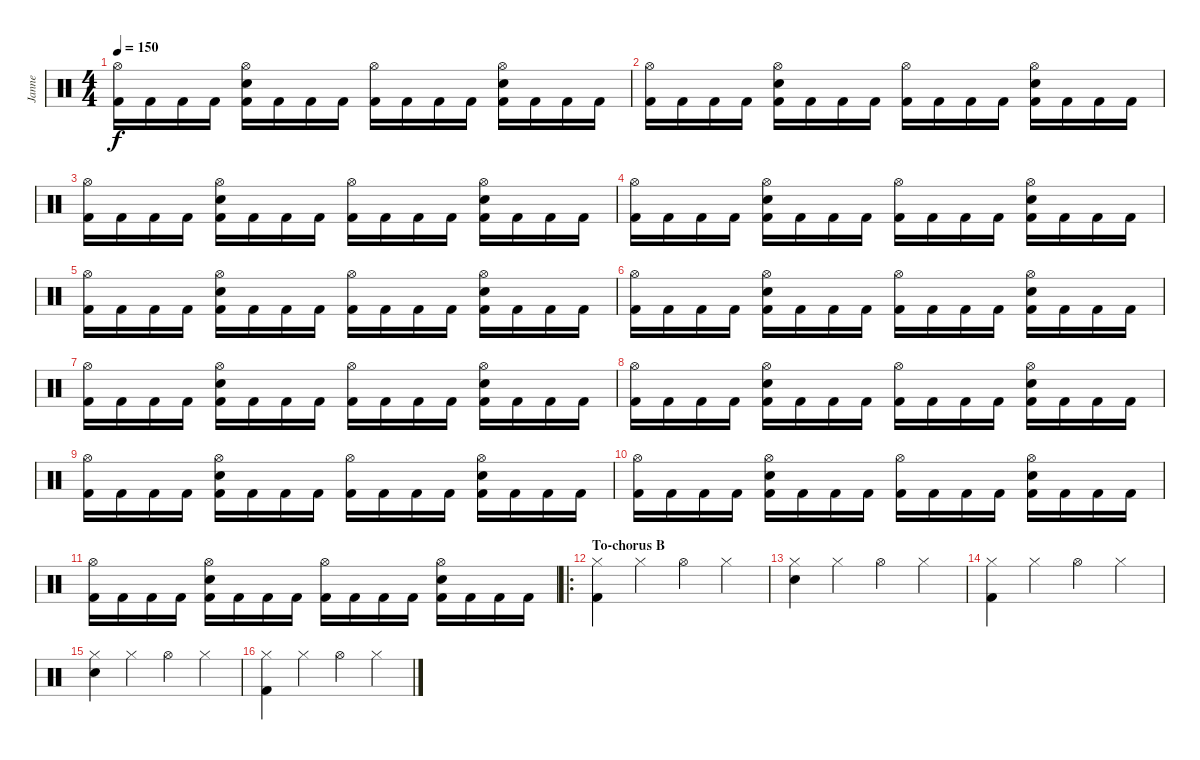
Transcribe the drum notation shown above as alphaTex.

\track ("Janne" "Janne") {instrument percussion}
\staff {score}
\articulation defaults
\ts (4 4)
\tempo 150
\clef neutral
\ks c
("Hi-Hat (open)" "Kick (hit) 2").16{dy f} "Kick (hit) 2".16 "Kick (hit) 2".16 "Kick (hit) 2".16 ("Hi-Hat (open)" "Electric Snare (hit)" "Kick (hit) 2").16 "Kick (hit) 2".16 "Kick (hit) 2".16 "Kick (hit) 2".16 ("Hi-Hat (open)" "Kick (hit) 2").16 "Kick (hit) 2".16 "Kick (hit) 2".16 "Kick (hit) 2".16 ("Hi-Hat (open)" "Electric Snare (hit)" "Kick (hit) 2").16 "Kick (hit) 2".16 "Kick (hit) 2".16 "Kick (hit) 2".16 |
("Hi-Hat (open)" "Kick (hit) 2").16 "Kick (hit) 2".16 "Kick (hit) 2".16 "Kick (hit) 2".16 ("Hi-Hat (open)" "Electric Snare (hit)" "Kick (hit) 2").16 "Kick (hit) 2".16 "Kick (hit) 2".16 "Kick (hit) 2".16 ("Hi-Hat (open)" "Kick (hit) 2").16 "Kick (hit) 2".16 "Kick (hit) 2".16 "Kick (hit) 2".16 ("Hi-Hat (open)" "Electric Snare (hit)" "Kick (hit) 2").16 "Kick (hit) 2".16 "Kick (hit) 2".16 "Kick (hit) 2".16 |
("Hi-Hat (open)" "Kick (hit) 2").16 "Kick (hit) 2".16 "Kick (hit) 2".16 "Kick (hit) 2".16 ("Hi-Hat (open)" "Electric Snare (hit)" "Kick (hit) 2").16 "Kick (hit) 2".16 "Kick (hit) 2".16 "Kick (hit) 2".16 ("Hi-Hat (open)" "Kick (hit) 2").16 "Kick (hit) 2".16 "Kick (hit) 2".16 "Kick (hit) 2".16 ("Hi-Hat (open)" "Electric Snare (hit)" "Kick (hit) 2").16 "Kick (hit) 2".16 "Kick (hit) 2".16 "Kick (hit) 2".16 |
("Hi-Hat (open)" "Kick (hit) 2").16 "Kick (hit) 2".16 "Kick (hit) 2".16 "Kick (hit) 2".16 ("Hi-Hat (open)" "Electric Snare (hit)" "Kick (hit) 2").16 "Kick (hit) 2".16 "Kick (hit) 2".16 "Kick (hit) 2".16 ("Hi-Hat (open)" "Kick (hit) 2").16 "Kick (hit) 2".16 "Kick (hit) 2".16 "Kick (hit) 2".16 ("Hi-Hat (open)" "Electric Snare (hit)" "Kick (hit) 2").16 "Kick (hit) 2".16 "Kick (hit) 2".16 "Kick (hit) 2".16 |
("Hi-Hat (open)" "Kick (hit) 2").16 "Kick (hit) 2".16 "Kick (hit) 2".16 "Kick (hit) 2".16 ("Hi-Hat (open)" "Electric Snare (hit)" "Kick (hit) 2").16 "Kick (hit) 2".16 "Kick (hit) 2".16 "Kick (hit) 2".16 ("Hi-Hat (open)" "Kick (hit) 2").16 "Kick (hit) 2".16 "Kick (hit) 2".16 "Kick (hit) 2".16 ("Hi-Hat (open)" "Electric Snare (hit)" "Kick (hit) 2").16 "Kick (hit) 2".16 "Kick (hit) 2".16 "Kick (hit) 2".16 |
("Hi-Hat (open)" "Kick (hit) 2").16 "Kick (hit) 2".16 "Kick (hit) 2".16 "Kick (hit) 2".16 ("Hi-Hat (open)" "Electric Snare (hit)" "Kick (hit) 2").16 "Kick (hit) 2".16 "Kick (hit) 2".16 "Kick (hit) 2".16 ("Hi-Hat (open)" "Kick (hit) 2").16 "Kick (hit) 2".16 "Kick (hit) 2".16 "Kick (hit) 2".16 ("Hi-Hat (open)" "Electric Snare (hit)" "Kick (hit) 2").16 "Kick (hit) 2".16 "Kick (hit) 2".16 "Kick (hit) 2".16 |
("Hi-Hat (open)" "Kick (hit) 2").16 "Kick (hit) 2".16 "Kick (hit) 2".16 "Kick (hit) 2".16 ("Hi-Hat (open)" "Electric Snare (hit)" "Kick (hit) 2").16 "Kick (hit) 2".16 "Kick (hit) 2".16 "Kick (hit) 2".16 ("Hi-Hat (open)" "Kick (hit) 2").16 "Kick (hit) 2".16 "Kick (hit) 2".16 "Kick (hit) 2".16 ("Hi-Hat (open)" "Electric Snare (hit)" "Kick (hit) 2").16 "Kick (hit) 2".16 "Kick (hit) 2".16 "Kick (hit) 2".16 |
("Hi-Hat (open)" "Kick (hit) 2").16 "Kick (hit) 2".16 "Kick (hit) 2".16 "Kick (hit) 2".16 ("Hi-Hat (open)" "Electric Snare (hit)" "Kick (hit) 2").16 "Kick (hit) 2".16 "Kick (hit) 2".16 "Kick (hit) 2".16 ("Hi-Hat (open)" "Kick (hit) 2").16 "Kick (hit) 2".16 "Kick (hit) 2".16 "Kick (hit) 2".16 ("Hi-Hat (open)" "Electric Snare (hit)" "Kick (hit) 2").16 "Kick (hit) 2".16 "Kick (hit) 2".16 "Kick (hit) 2".16 |
("Hi-Hat (open)" "Kick (hit) 2").16 "Kick (hit) 2".16 "Kick (hit) 2".16 "Kick (hit) 2".16 ("Hi-Hat (open)" "Electric Snare (hit)" "Kick (hit) 2").16 "Kick (hit) 2".16 "Kick (hit) 2".16 "Kick (hit) 2".16 ("Hi-Hat (open)" "Kick (hit) 2").16 "Kick (hit) 2".16 "Kick (hit) 2".16 "Kick (hit) 2".16 ("Hi-Hat (open)" "Electric Snare (hit)" "Kick (hit) 2").16 "Kick (hit) 2".16 "Kick (hit) 2".16 "Kick (hit) 2".16 |
("Hi-Hat (open)" "Kick (hit) 2").16 "Kick (hit) 2".16 "Kick (hit) 2".16 "Kick (hit) 2".16 ("Hi-Hat (open)" "Electric Snare (hit)" "Kick (hit) 2").16 "Kick (hit) 2".16 "Kick (hit) 2".16 "Kick (hit) 2".16 ("Hi-Hat (open)" "Kick (hit) 2").16 "Kick (hit) 2".16 "Kick (hit) 2".16 "Kick (hit) 2".16 ("Hi-Hat (open)" "Electric Snare (hit)" "Kick (hit) 2").16 "Kick (hit) 2".16 "Kick (hit) 2".16 "Kick (hit) 2".16 |
("Hi-Hat (open)" "Kick (hit) 2").16 "Kick (hit) 2".16 "Kick (hit) 2".16 "Kick (hit) 2".16 ("Hi-Hat (open)" "Electric Snare (hit)" "Kick (hit) 2").16 "Kick (hit) 2".16 "Kick (hit) 2".16 "Kick (hit) 2".16 ("Hi-Hat (open)" "Kick (hit) 2").16 "Kick (hit) 2".16 "Kick (hit) 2".16 "Kick (hit) 2".16 ("Hi-Hat (open)" "Electric Snare (hit)" "Kick (hit) 2").16 "Kick (hit) 2".16 "Kick (hit) 2".16 "Kick (hit) 2".16 |
\ro
\section ("" "To-chorus B")
("Hi-Hat (closed)" "Kick (hit) 2").4 "Hi-Hat (closed)".4 "Hi-Hat (open)".4 "Hi-Hat (closed)".4 |
("Hi-Hat (closed)" "Electric Snare (hit)").4 "Hi-Hat (closed)".4 "Hi-Hat (open)".4 "Hi-Hat (closed)".4 |
("Hi-Hat (closed)" "Kick (hit) 2").4 "Hi-Hat (closed)".4 "Hi-Hat (open)".4 "Hi-Hat (closed)".4 |
("Hi-Hat (closed)" "Electric Snare (hit)").4 "Hi-Hat (closed)".4 "Hi-Hat (open)".4 "Hi-Hat (closed)".4 |
("Hi-Hat (closed)" "Kick (hit) 2").4 "Hi-Hat (closed)".4 "Hi-Hat (open)".4 "Hi-Hat (closed)".4
